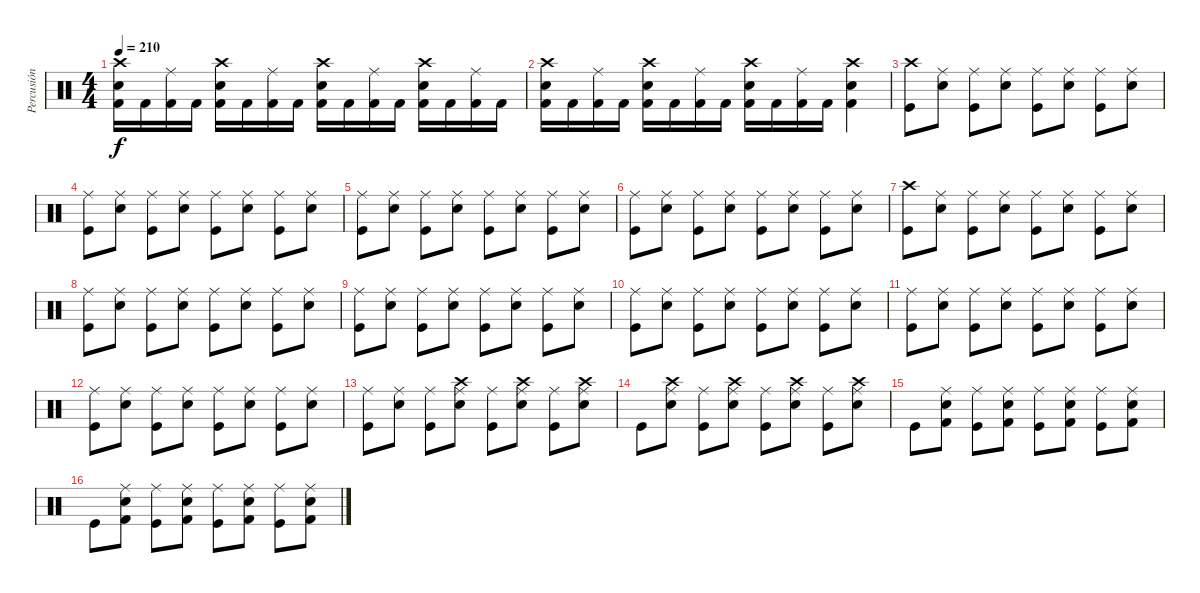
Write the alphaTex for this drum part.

\track ("Percusión" "Percusión") {instrument percussion}
\staff {score}
\articulation defaults
\ts (4 4)
\tempo 210
\clef neutral
\ks c
("Kick (hit) 2" "Snare (hit) 2" "Crash high (hit)").16{dy f} "Kick (hit) 2".16 ("Kick (hit) 2" "Ride (middle)").16 "Kick (hit) 2".16 ("Kick (hit) 2" "Snare (hit) 2" "Crash high (hit)").16 "Kick (hit) 2".16 ("Kick (hit) 2" "Ride (middle)").16 "Kick (hit) 2".16 ("Kick (hit) 2" "Snare (hit) 2" "Crash high (hit)").16 "Kick (hit) 2".16 ("Kick (hit) 2" "Ride (middle)").16 "Kick (hit) 2".16 ("Kick (hit) 2" "Snare (hit) 2" "Crash high (hit)").16 "Kick (hit) 2".16 ("Kick (hit) 2" "Ride (middle)").16 "Kick (hit) 2".16 |
("Kick (hit) 2" "Snare (hit) 2" "Crash high (hit)").16 "Kick (hit) 2".16 ("Kick (hit) 2" "Ride (middle)").16 "Kick (hit) 2".16 ("Kick (hit) 2" "Snare (hit) 2" "Crash high (hit)").16 "Kick (hit) 2".16 ("Kick (hit) 2" "Ride (middle)").16 "Kick (hit) 2".16 ("Kick (hit) 2" "Snare (hit) 2" "Crash high (hit)").16 "Kick (hit) 2".16 ("Kick (hit) 2" "Ride (middle)").16 "Kick (hit) 2".16 ("Kick (hit) 2" "Snare (hit) 2" "Crash high (hit)").4 |
("Crash high (hit)" "Kick (hit)").8 ("Ride (middle)" "Snare (hit) 2").8 ("Ride (middle)" "Kick (hit)").8 ("Ride (middle)" "Snare (hit) 2").8 ("Ride (middle)" "Kick (hit)").8 ("Ride (middle)" "Snare (hit) 2").8 ("Ride (middle)" "Kick (hit)").8 ("Ride (middle)" "Snare (hit) 2").8 |
("Ride (middle)" "Kick (hit)").8 ("Ride (middle)" "Snare (hit) 2").8 ("Ride (middle)" "Kick (hit)").8 ("Ride (middle)" "Snare (hit) 2").8 ("Ride (middle)" "Kick (hit)").8 ("Ride (middle)" "Snare (hit) 2").8 ("Ride (middle)" "Kick (hit)").8 ("Ride (middle)" "Snare (hit) 2").8 |
("Ride (middle)" "Kick (hit)").8 ("Ride (middle)" "Snare (hit) 2").8 ("Ride (middle)" "Kick (hit)").8 ("Ride (middle)" "Snare (hit) 2").8 ("Ride (middle)" "Kick (hit)").8 ("Ride (middle)" "Snare (hit) 2").8 ("Ride (middle)" "Kick (hit)").8 ("Ride (middle)" "Snare (hit) 2").8 |
("Ride (middle)" "Kick (hit)").8 ("Ride (middle)" "Snare (hit) 2").8 ("Ride (middle)" "Kick (hit)").8 ("Ride (middle)" "Snare (hit) 2").8 ("Ride (middle)" "Kick (hit)").8 ("Ride (middle)" "Snare (hit) 2").8 ("Ride (middle)" "Kick (hit)").8 ("Ride (middle)" "Snare (hit) 2").8 |
("Crash high (hit)" "Kick (hit)").8 ("Ride (middle)" "Snare (hit) 2").8 ("Ride (middle)" "Kick (hit)").8 ("Ride (middle)" "Snare (hit) 2").8 ("Ride (middle)" "Kick (hit)").8 ("Ride (middle)" "Snare (hit) 2").8 ("Ride (middle)" "Kick (hit)").8 ("Ride (middle)" "Snare (hit) 2").8 |
("Ride (middle)" "Kick (hit)").8 ("Ride (middle)" "Snare (hit) 2").8 ("Ride (middle)" "Kick (hit)").8 ("Ride (middle)" "Snare (hit) 2").8 ("Ride (middle)" "Kick (hit)").8 ("Ride (middle)" "Snare (hit) 2").8 ("Ride (middle)" "Kick (hit)").8 ("Ride (middle)" "Snare (hit) 2").8 |
("Ride (middle)" "Kick (hit)").8 ("Ride (middle)" "Snare (hit) 2").8 ("Ride (middle)" "Kick (hit)").8 ("Ride (middle)" "Snare (hit) 2").8 ("Ride (middle)" "Kick (hit)").8 ("Ride (middle)" "Snare (hit) 2").8 ("Ride (middle)" "Kick (hit)").8 ("Ride (middle)" "Snare (hit) 2").8 |
("Ride (middle)" "Kick (hit)").8 ("Ride (middle)" "Snare (hit) 2").8 ("Ride (middle)" "Kick (hit)").8 ("Ride (middle)" "Snare (hit) 2").8 ("Ride (middle)" "Kick (hit)").8 ("Ride (middle)" "Snare (hit) 2").8 ("Ride (middle)" "Kick (hit)").8 ("Ride (middle)" "Snare (hit) 2").8 |
("Ride (middle)" "Kick (hit)").8 ("Ride (middle)" "Snare (hit) 2").8 ("Ride (middle)" "Kick (hit)").8 ("Ride (middle)" "Snare (hit) 2").8 ("Ride (middle)" "Kick (hit)").8 ("Ride (middle)" "Snare (hit) 2").8 ("Ride (middle)" "Kick (hit)").8 ("Ride (middle)" "Snare (hit) 2").8 |
("Ride (middle)" "Kick (hit)").8 ("Ride (middle)" "Snare (hit) 2").8 ("Ride (middle)" "Kick (hit)").8 ("Ride (middle)" "Snare (hit) 2").8 ("Ride (middle)" "Kick (hit)").8 ("Ride (middle)" "Snare (hit) 2").8 ("Ride (middle)" "Kick (hit)").8 ("Ride (middle)" "Snare (hit) 2").8 |
("Ride (middle)" "Kick (hit)").8 ("Ride (middle)" "Snare (hit) 2").8 ("Ride (middle)" "Kick (hit)").8 ("Crash high (hit)" "Ride (middle)" "Snare (hit) 2").8 ("Ride (middle)" "Kick (hit)").8 ("Crash high (hit)" "Ride (middle)" "Snare (hit) 2").8 ("Ride (middle)" "Kick (hit)").8 ("Crash high (hit)" "Ride (middle)" "Snare (hit) 2").8 |
"Kick (hit)".8 ("Crash high (hit)" "Ride (middle)" "Snare (hit) 2").8 ("Ride (middle)" "Kick (hit)").8 ("Crash high (hit)" "Ride (middle)" "Snare (hit) 2").8 ("Ride (middle)" "Kick (hit)").8 ("Crash high (hit)" "Ride (middle)" "Snare (hit) 2").8 ("Ride (middle)" "Kick (hit)").8 ("Crash high (hit)" "Ride (middle)" "Snare (hit) 2").8 |
"Kick (hit)".8 ("Kick (hit) 2" "Ride (middle)" "Snare (hit) 2").8 ("Ride (middle)" "Kick (hit)").8 ("Kick (hit) 2" "Ride (middle)" "Snare (hit) 2").8 ("Ride (middle)" "Kick (hit)").8 ("Kick (hit) 2" "Ride (middle)" "Snare (hit) 2").8 ("Ride (middle)" "Kick (hit)").8 ("Kick (hit) 2" "Ride (middle)" "Snare (hit) 2").8 |
"Kick (hit)".8 ("Kick (hit) 2" "Ride (middle)" "Snare (hit) 2").8 ("Ride (middle)" "Kick (hit)").8 ("Kick (hit) 2" "Ride (middle)" "Snare (hit) 2").8 ("Ride (middle)" "Kick (hit)").8 ("Kick (hit) 2" "Ride (middle)" "Snare (hit) 2").8 ("Ride (middle)" "Kick (hit)").8 ("Kick (hit) 2" "Ride (middle)" "Snare (hit) 2").8
